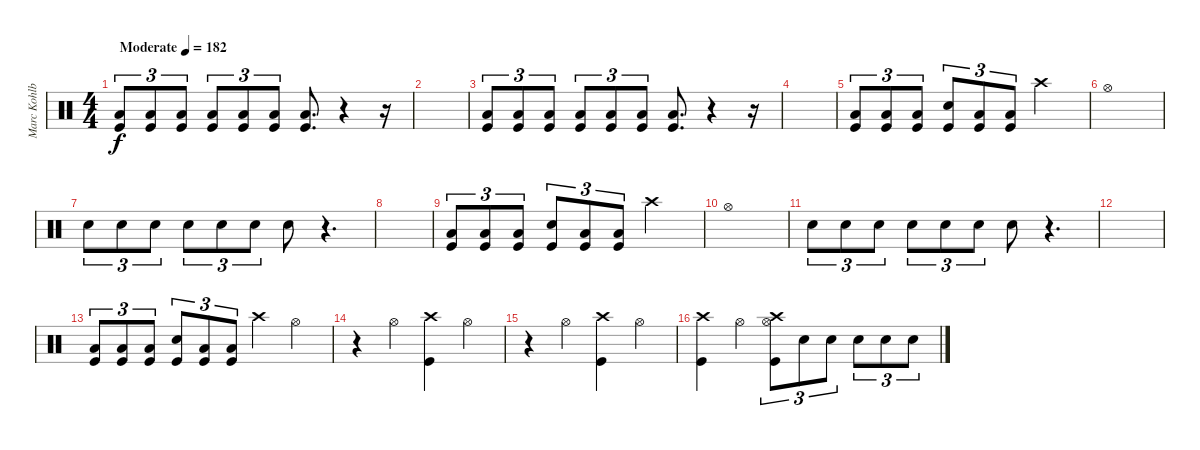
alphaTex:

\track ("Marc Kohlbry" "Marc Kohlb") {instrument percussion}
\staff {score}
\articulation defaults
\ts (4 4)
\tempo (182 "Moderate")
\clef neutral
\ks c
("Low Floor Tom (hit)" "Kick (hit)").8{tu (3 2) dy f} ("Low Floor Tom (hit)" "Kick (hit)").8{tu (3 2)} ("Low Floor Tom (hit)" "Kick (hit)").8{tu (3 2)} ("Low Floor Tom (hit)" "Kick (hit)").8{tu (3 2)} ("Low Floor Tom (hit)" "Kick (hit)").8{tu (3 2)} ("Low Floor Tom (hit)" "Kick (hit)").8{tu (3 2)} ("Low Floor Tom (hit)" "Kick (hit)").8{d} r.4 r.16 |
|
("Low Floor Tom (hit)" "Kick (hit)").8{tu (3 2)} ("Low Floor Tom (hit)" "Kick (hit)").8{tu (3 2)} ("Low Floor Tom (hit)" "Kick (hit)").8{tu (3 2)} ("Low Floor Tom (hit)" "Kick (hit)").8{tu (3 2)} ("Low Floor Tom (hit)" "Kick (hit)").8{tu (3 2)} ("Low Floor Tom (hit)" "Kick (hit)").8{tu (3 2)} ("Low Floor Tom (hit)" "Kick (hit)").8{d} r.4 r.16 |
|
("Low Floor Tom (hit)" "Kick (hit)").8{tu (3 2)} ("Low Floor Tom (hit)" "Kick (hit)").8{tu (3 2)} ("Low Floor Tom (hit)" "Kick (hit)").8{tu (3 2)} ("Electric Snare (hit)" "Kick (hit)").8{tu (3 2)} ("Low Floor Tom (hit)" "Kick (hit)").8{tu (3 2)} ("Low Floor Tom (hit)" "Kick (hit)").8{tu (3 2)} "Crash high (hit)".2 |
"Hi-Hat (open)".1 |
"Electric Snare (hit)".8{tu (3 2)} "Electric Snare (hit)".8{tu (3 2)} "Electric Snare (hit)".8{tu (3 2)} "Electric Snare (hit)".8{tu (3 2)} "Electric Snare (hit)".8{tu (3 2)} "Electric Snare (hit)".8{tu (3 2)} "Electric Snare (hit)".8 r.4{d} |
|
("Low Floor Tom (hit)" "Kick (hit)").8{tu (3 2)} ("Low Floor Tom (hit)" "Kick (hit)").8{tu (3 2)} ("Low Floor Tom (hit)" "Kick (hit)").8{tu (3 2)} ("Electric Snare (hit)" "Kick (hit)").8{tu (3 2)} ("Low Floor Tom (hit)" "Kick (hit)").8{tu (3 2)} ("Low Floor Tom (hit)" "Kick (hit)").8{tu (3 2)} "Crash high (hit)".2 |
"Hi-Hat (open)".1 |
"Electric Snare (hit)".8{tu (3 2)} "Electric Snare (hit)".8{tu (3 2)} "Electric Snare (hit)".8{tu (3 2)} "Electric Snare (hit)".8{tu (3 2)} "Electric Snare (hit)".8{tu (3 2)} "Electric Snare (hit)".8{tu (3 2)} "Electric Snare (hit)".8 r.4{d} |
|
("Low Floor Tom (hit)" "Kick (hit)").8{tu (3 2)} ("Low Floor Tom (hit)" "Kick (hit)").8{tu (3 2)} ("Low Floor Tom (hit)" "Kick (hit)").8{tu (3 2)} ("Electric Snare (hit)" "Kick (hit)").8{tu (3 2)} ("Low Floor Tom (hit)" "Kick (hit)").8{tu (3 2)} ("Low Floor Tom (hit)" "Kick (hit)").8{tu (3 2)} "Crash high (hit)".4 "Hi-Hat (open)".4 |
r.4 "Hi-Hat (open)".4 ("Crash high (hit)" "Kick (hit)").4 "Hi-Hat (open)".4 |
r.4 "Hi-Hat (open)".4 ("Crash high (hit)" "Kick (hit)").4 "Hi-Hat (open)".4 |
("Crash high (hit)" "Kick (hit)").4 "Hi-Hat (open)".4 ("Crash high (hit)" "Hi-Hat (open)" "Kick (hit)").8{tu (3 2)} "Electric Snare (hit)".8{tu (3 2)} "Electric Snare (hit)".8{tu (3 2)} "Electric Snare (hit)".8{tu (3 2)} "Electric Snare (hit)".8{tu (3 2)} "Electric Snare (hit)".8{tu (3 2)}
